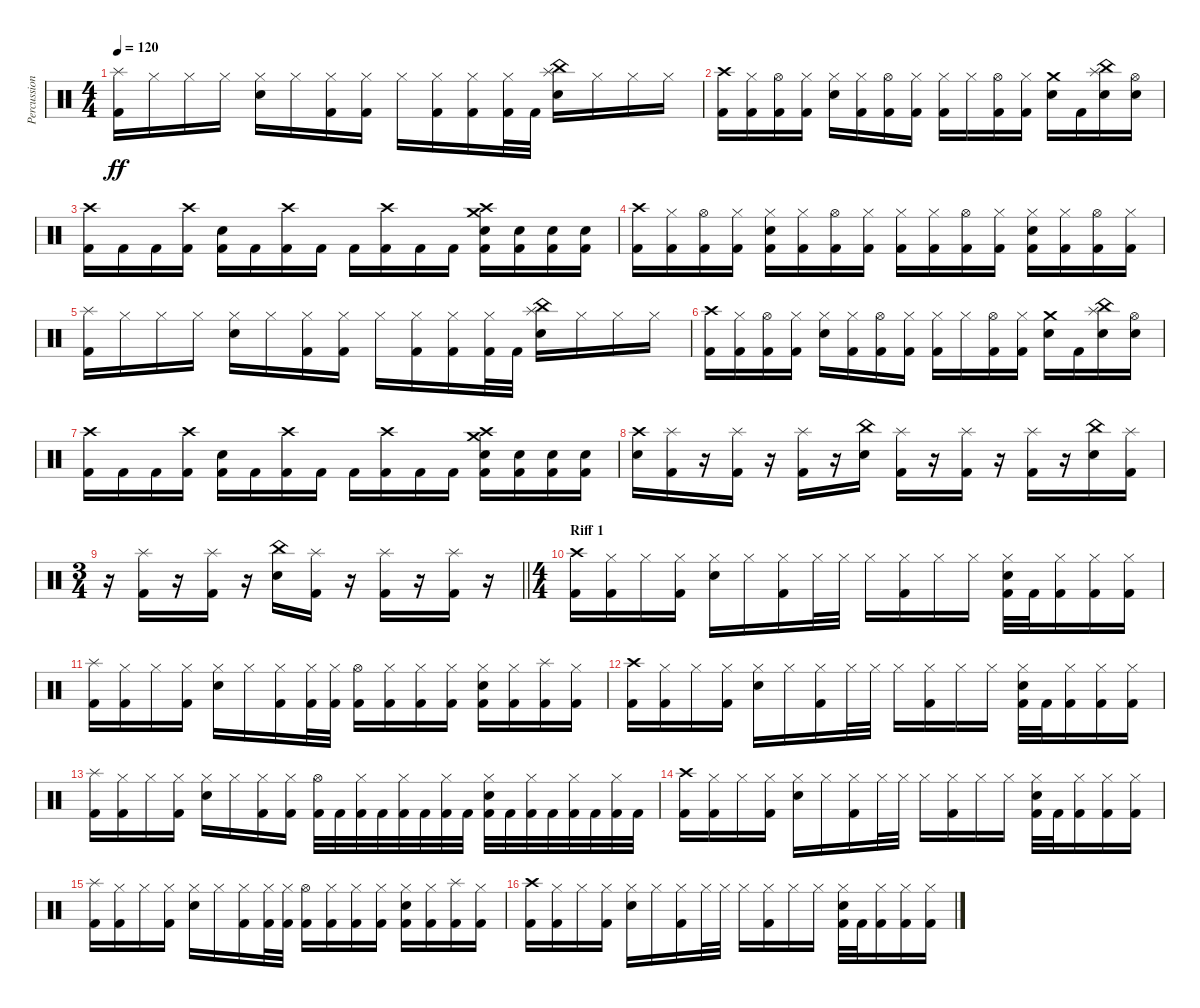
\track ("Percussion" "Percussion") {instrument percussion}
\staff {score}
\articulation defaults
\ts (4 4)
\tempo 120
\clef neutral
\ks c
("Splash (hit)" "Kick (hit) 2").16{dy ff} "Hi-Hat (closed)".16 "Hi-Hat (closed)".16 "Hi-Hat (closed)".16 ("Hi-Hat (closed)" "Electric Snare (hit)").16 "Hi-Hat (closed)".16 ("Hi-Hat (closed)" "Kick (hit) 2").16 ("Hi-Hat (closed)" "Kick (hit) 2").16 "Hi-Hat (closed)".16 ("Hi-Hat (closed)" "Kick (hit) 2").16 ("Hi-Hat (closed)" "Kick (hit) 2").16 ("Hi-Hat (closed)" "Kick (hit) 2").32 "Kick (hit) 2".32 ("Splash (hit)" "China (hit)" "Electric Snare (hit)").16 "Hi-Hat (closed)".16 "Hi-Hat (closed)".16 "Hi-Hat (closed)".16 |
("Crash high (hit)" "Kick (hit) 2").16 ("Hi-Hat (closed)" "Kick (hit) 2").16 ("Hi-Hat (open)" "Kick (hit) 2").16 ("Hi-Hat (closed)" "Kick (hit) 2").16 ("Hi-Hat (closed)" "Electric Snare (hit)").16 ("Hi-Hat (closed)" "Kick (hit) 2").16 ("Hi-Hat (open)" "Kick (hit) 2").16 ("Hi-Hat (closed)" "Kick (hit) 2").16 ("Hi-Hat (closed)" "Kick (hit) 2").16 "Hi-Hat (closed)".16 ("Hi-Hat (open)" "Kick (hit) 2").16 ("Hi-Hat (closed)" "Kick (hit) 2").16 ("Crash medium (hit)" "Electric Snare (hit)").16 "Kick (hit) 2".16 ("Splash (hit)" "China (hit)" "Electric Snare (hit)").16 ("Hi-Hat (open)" "Electric Snare (hit)").16 |
("Crash high (hit)" "Kick (hit) 2").16 "Kick (hit) 2".16 "Kick (hit) 2".16 ("Crash high (hit)" "Kick (hit) 2").16 ("Electric Snare (hit)" "Kick (hit) 2").16 "Kick (hit) 2".16 ("Crash high (hit)" "Kick (hit) 2").16 "Kick (hit) 2".16 "Kick (hit) 2".16 ("Crash high (hit)" "Kick (hit) 2").16 "Kick (hit) 2".16 "Kick (hit) 2".16 ("Crash medium (hit)" "Crash high (hit)" "Electric Snare (hit)" "Kick (hit) 2").16 ("Electric Snare (hit)" "Kick (hit) 2").16 ("Electric Snare (hit)" "Kick (hit) 2").16 ("Electric Snare (hit)" "Kick (hit) 2").16 |
("Crash high (hit)" "Kick (hit) 2").16 ("Hi-Hat (closed)" "Kick (hit) 2").16 ("Hi-Hat (open)" "Kick (hit) 2").16 ("Hi-Hat (closed)" "Kick (hit) 2").16 ("Hi-Hat (closed)" "Electric Snare (hit)" "Kick (hit) 2").16 ("Hi-Hat (closed)" "Kick (hit) 2").16 ("Hi-Hat (open)" "Kick (hit) 2").16 ("Hi-Hat (closed)" "Kick (hit) 2").16 ("Hi-Hat (closed)" "Kick (hit) 2").16 ("Hi-Hat (closed)" "Kick (hit) 2").16 ("Hi-Hat (open)" "Kick (hit) 2").16 ("Hi-Hat (closed)" "Kick (hit) 2").16 ("Hi-Hat (closed)" "Electric Snare (hit)" "Kick (hit) 2").16 ("Hi-Hat (closed)" "Kick (hit) 2").16 ("Hi-Hat (open)" "Kick (hit) 2").16 ("Hi-Hat (closed)" "Kick (hit) 2").16 |
("Splash (hit)" "Kick (hit) 2").16 "Hi-Hat (closed)".16 "Hi-Hat (closed)".16 "Hi-Hat (closed)".16 ("Hi-Hat (closed)" "Electric Snare (hit)").16 "Hi-Hat (closed)".16 ("Hi-Hat (closed)" "Kick (hit) 2").16 ("Hi-Hat (closed)" "Kick (hit) 2").16 "Hi-Hat (closed)".16 ("Hi-Hat (closed)" "Kick (hit) 2").16 ("Hi-Hat (closed)" "Kick (hit) 2").16 ("Hi-Hat (closed)" "Kick (hit) 2").32 "Kick (hit) 2".32 ("Splash (hit)" "China (hit)" "Electric Snare (hit)").16 "Hi-Hat (closed)".16 "Hi-Hat (closed)".16 "Hi-Hat (closed)".16 |
("Crash high (hit)" "Kick (hit) 2").16 ("Hi-Hat (closed)" "Kick (hit) 2").16 ("Hi-Hat (open)" "Kick (hit) 2").16 ("Hi-Hat (closed)" "Kick (hit) 2").16 ("Hi-Hat (closed)" "Electric Snare (hit)").16 ("Hi-Hat (closed)" "Kick (hit) 2").16 ("Hi-Hat (open)" "Kick (hit) 2").16 ("Hi-Hat (closed)" "Kick (hit) 2").16 ("Hi-Hat (closed)" "Kick (hit) 2").16 "Hi-Hat (closed)".16 ("Hi-Hat (open)" "Kick (hit) 2").16 ("Hi-Hat (closed)" "Kick (hit) 2").16 ("Crash medium (hit)" "Electric Snare (hit)").16 "Kick (hit) 2".16 ("Splash (hit)" "China (hit)" "Electric Snare (hit)").16 ("Hi-Hat (open)" "Electric Snare (hit)").16 |
("Crash high (hit)" "Kick (hit) 2").16 "Kick (hit) 2".16 "Kick (hit) 2".16 ("Crash high (hit)" "Kick (hit) 2").16 ("Electric Snare (hit)" "Kick (hit) 2").16 "Kick (hit) 2".16 ("Crash high (hit)" "Kick (hit) 2").16 "Kick (hit) 2".16 "Kick (hit) 2".16 ("Crash high (hit)" "Kick (hit) 2").16 "Kick (hit) 2".16 "Kick (hit) 2".16 ("Crash medium (hit)" "Crash high (hit)" "Electric Snare (hit)" "Kick (hit) 2").16 ("Electric Snare (hit)" "Kick (hit) 2").16 ("Electric Snare (hit)" "Kick (hit) 2").16 ("Electric Snare (hit)" "Kick (hit) 2").16 |
("Crash high (hit)" "Electric Snare (hit)").16 ("Splash (hit)" "Kick (hit) 2").16 r.16 ("Splash (hit)" "Kick (hit) 2").16 r.16 ("Splash (hit)" "Kick (hit) 2").16 r.16 ("China (hit)" "Electric Snare (hit)").16 ("Splash (hit)" "Kick (hit) 2").16 r.16 ("Splash (hit)" "Kick (hit) 2").16 r.16 ("Splash (hit)" "Kick (hit) 2").16 r.16 ("China (hit)" "Electric Snare (hit)").16 ("Splash (hit)" "Kick (hit) 2").16 |
\ts (3 4)
\barLineRight lightlight
r.16 ("Splash (hit)" "Kick (hit) 2").16 r.16 ("Splash (hit)" "Kick (hit) 2").16 r.16 ("China (hit)" "Electric Snare (hit)").16 ("Splash (hit)" "Kick (hit) 2").16 r.16 ("Splash (hit)" "Kick (hit) 2").16 r.16 ("Splash (hit)" "Kick (hit) 2").16 r.16 |
\ts (4 4)
\section ("" "Riff 1")
("Crash high (hit)" "Kick (hit) 2").16 ("Hi-Hat (closed)" "Kick (hit) 2").16 "Hi-Hat (closed)".16 ("Hi-Hat (closed)" "Kick (hit) 2").16 ("Hi-Hat (closed)" "Electric Snare (hit)").16 "Hi-Hat (closed)".16 ("Hi-Hat (closed)" "Kick (hit) 2").16 "Hi-Hat (closed)".32 "Hi-Hat (closed)".32 "Hi-Hat (closed)".16 ("Hi-Hat (closed)" "Kick (hit) 2").16 "Hi-Hat (closed)".16 "Hi-Hat (closed)".16 ("Hi-Hat (closed)" "Electric Snare (hit)" "Kick (hit) 2").32 "Kick (hit) 2".32 ("Hi-Hat (closed)" "Kick (hit) 2").16 ("Hi-Hat (closed)" "Kick (hit) 2").16 ("Hi-Hat (closed)" "Kick (hit) 2").16 |
("Splash (hit)" "Kick (hit) 2").16 ("Hi-Hat (closed)" "Kick (hit) 2").16 "Hi-Hat (closed)".16 ("Hi-Hat (closed)" "Kick (hit) 2").16 ("Hi-Hat (closed)" "Electric Snare (hit)").16 "Hi-Hat (closed)".16 ("Hi-Hat (closed)" "Kick (hit) 2").16 ("Hi-Hat (closed)" "Kick (hit) 2").32 ("Hi-Hat (closed)" "Kick (hit) 2").32 ("Hi-Hat (open)" "Kick (hit) 2").16 ("Hi-Hat (closed)" "Kick (hit) 2").16 ("Hi-Hat (closed)" "Kick (hit) 2").16 ("Hi-Hat (closed)" "Kick (hit) 2").16 ("Hi-Hat (closed)" "Electric Snare (hit)" "Kick (hit) 2").16 ("Hi-Hat (closed)" "Kick (hit) 2").16 ("Splash (hit)" "Kick (hit) 2").16 ("Hi-Hat (closed)" "Kick (hit) 2").16 |
("Crash high (hit)" "Kick (hit) 2").16 ("Hi-Hat (closed)" "Kick (hit) 2").16 "Hi-Hat (closed)".16 ("Hi-Hat (closed)" "Kick (hit) 2").16 ("Hi-Hat (closed)" "Electric Snare (hit)").16 "Hi-Hat (closed)".16 ("Hi-Hat (closed)" "Kick (hit) 2").16 "Hi-Hat (closed)".32 "Hi-Hat (closed)".32 "Hi-Hat (closed)".16 ("Hi-Hat (closed)" "Kick (hit) 2").16 "Hi-Hat (closed)".16 "Hi-Hat (closed)".16 ("Hi-Hat (closed)" "Electric Snare (hit)" "Kick (hit) 2").32 "Kick (hit) 2".32 ("Hi-Hat (closed)" "Kick (hit) 2").16 ("Hi-Hat (closed)" "Kick (hit) 2").16 ("Hi-Hat (closed)" "Kick (hit) 2").16 |
("Splash (hit)" "Kick (hit) 2").16 ("Hi-Hat (closed)" "Kick (hit) 2").16 "Hi-Hat (closed)".16 ("Hi-Hat (closed)" "Kick (hit) 2").16 ("Hi-Hat (closed)" "Electric Snare (hit)").16 "Hi-Hat (closed)".16 ("Hi-Hat (closed)" "Kick (hit) 2").16 ("Hi-Hat (closed)" "Kick (hit) 2").16 ("Hi-Hat (open)" "Kick (hit) 2").32 "Kick (hit) 2".32 ("Hi-Hat (closed)" "Kick (hit) 2").32 "Kick (hit) 2".32 ("Hi-Hat (closed)" "Kick (hit) 2").32 "Kick (hit) 2".32 ("Hi-Hat (closed)" "Kick (hit) 2").32 "Kick (hit) 2".32 ("Hi-Hat (closed)" "Electric Snare (hit)" "Kick (hit) 2").32 "Kick (hit) 2".32 ("Hi-Hat (closed)" "Kick (hit) 2").32 "Kick (hit) 2".32 ("Hi-Hat (closed)" "Kick (hit) 2").32 "Kick (hit) 2".32 ("Hi-Hat (closed)" "Kick (hit) 2").32 "Kick (hit) 2".32 |
("Crash high (hit)" "Kick (hit) 2").16 ("Hi-Hat (closed)" "Kick (hit) 2").16 "Hi-Hat (closed)".16 ("Hi-Hat (closed)" "Kick (hit) 2").16 ("Hi-Hat (closed)" "Electric Snare (hit)").16 "Hi-Hat (closed)".16 ("Hi-Hat (closed)" "Kick (hit) 2").16 "Hi-Hat (closed)".32 "Hi-Hat (closed)".32 "Hi-Hat (closed)".16 ("Hi-Hat (closed)" "Kick (hit) 2").16 "Hi-Hat (closed)".16 "Hi-Hat (closed)".16 ("Hi-Hat (closed)" "Electric Snare (hit)" "Kick (hit) 2").32 "Kick (hit) 2".32 ("Hi-Hat (closed)" "Kick (hit) 2").16 ("Hi-Hat (closed)" "Kick (hit) 2").16 ("Hi-Hat (closed)" "Kick (hit) 2").16 |
("Splash (hit)" "Kick (hit) 2").16 ("Hi-Hat (closed)" "Kick (hit) 2").16 "Hi-Hat (closed)".16 ("Hi-Hat (closed)" "Kick (hit) 2").16 ("Hi-Hat (closed)" "Electric Snare (hit)").16 "Hi-Hat (closed)".16 ("Hi-Hat (closed)" "Kick (hit) 2").16 ("Hi-Hat (closed)" "Kick (hit) 2").32 ("Hi-Hat (closed)" "Kick (hit) 2").32 ("Hi-Hat (open)" "Kick (hit) 2").16 ("Hi-Hat (closed)" "Kick (hit) 2").16 ("Hi-Hat (closed)" "Kick (hit) 2").16 ("Hi-Hat (closed)" "Kick (hit) 2").16 ("Hi-Hat (closed)" "Electric Snare (hit)" "Kick (hit) 2").16 ("Hi-Hat (closed)" "Kick (hit) 2").16 ("Splash (hit)" "Kick (hit) 2").16 ("Hi-Hat (closed)" "Kick (hit) 2").16 |
("Crash high (hit)" "Kick (hit) 2").16 ("Hi-Hat (closed)" "Kick (hit) 2").16 "Hi-Hat (closed)".16 ("Hi-Hat (closed)" "Kick (hit) 2").16 ("Hi-Hat (closed)" "Electric Snare (hit)").16 "Hi-Hat (closed)".16 ("Hi-Hat (closed)" "Kick (hit) 2").16 "Hi-Hat (closed)".32 "Hi-Hat (closed)".32 "Hi-Hat (closed)".16 ("Hi-Hat (closed)" "Kick (hit) 2").16 "Hi-Hat (closed)".16 "Hi-Hat (closed)".16 ("Hi-Hat (closed)" "Electric Snare (hit)" "Kick (hit) 2").32 "Kick (hit) 2".32 ("Hi-Hat (closed)" "Kick (hit) 2").16 ("Hi-Hat (closed)" "Kick (hit) 2").16 ("Hi-Hat (closed)" "Kick (hit) 2").16
